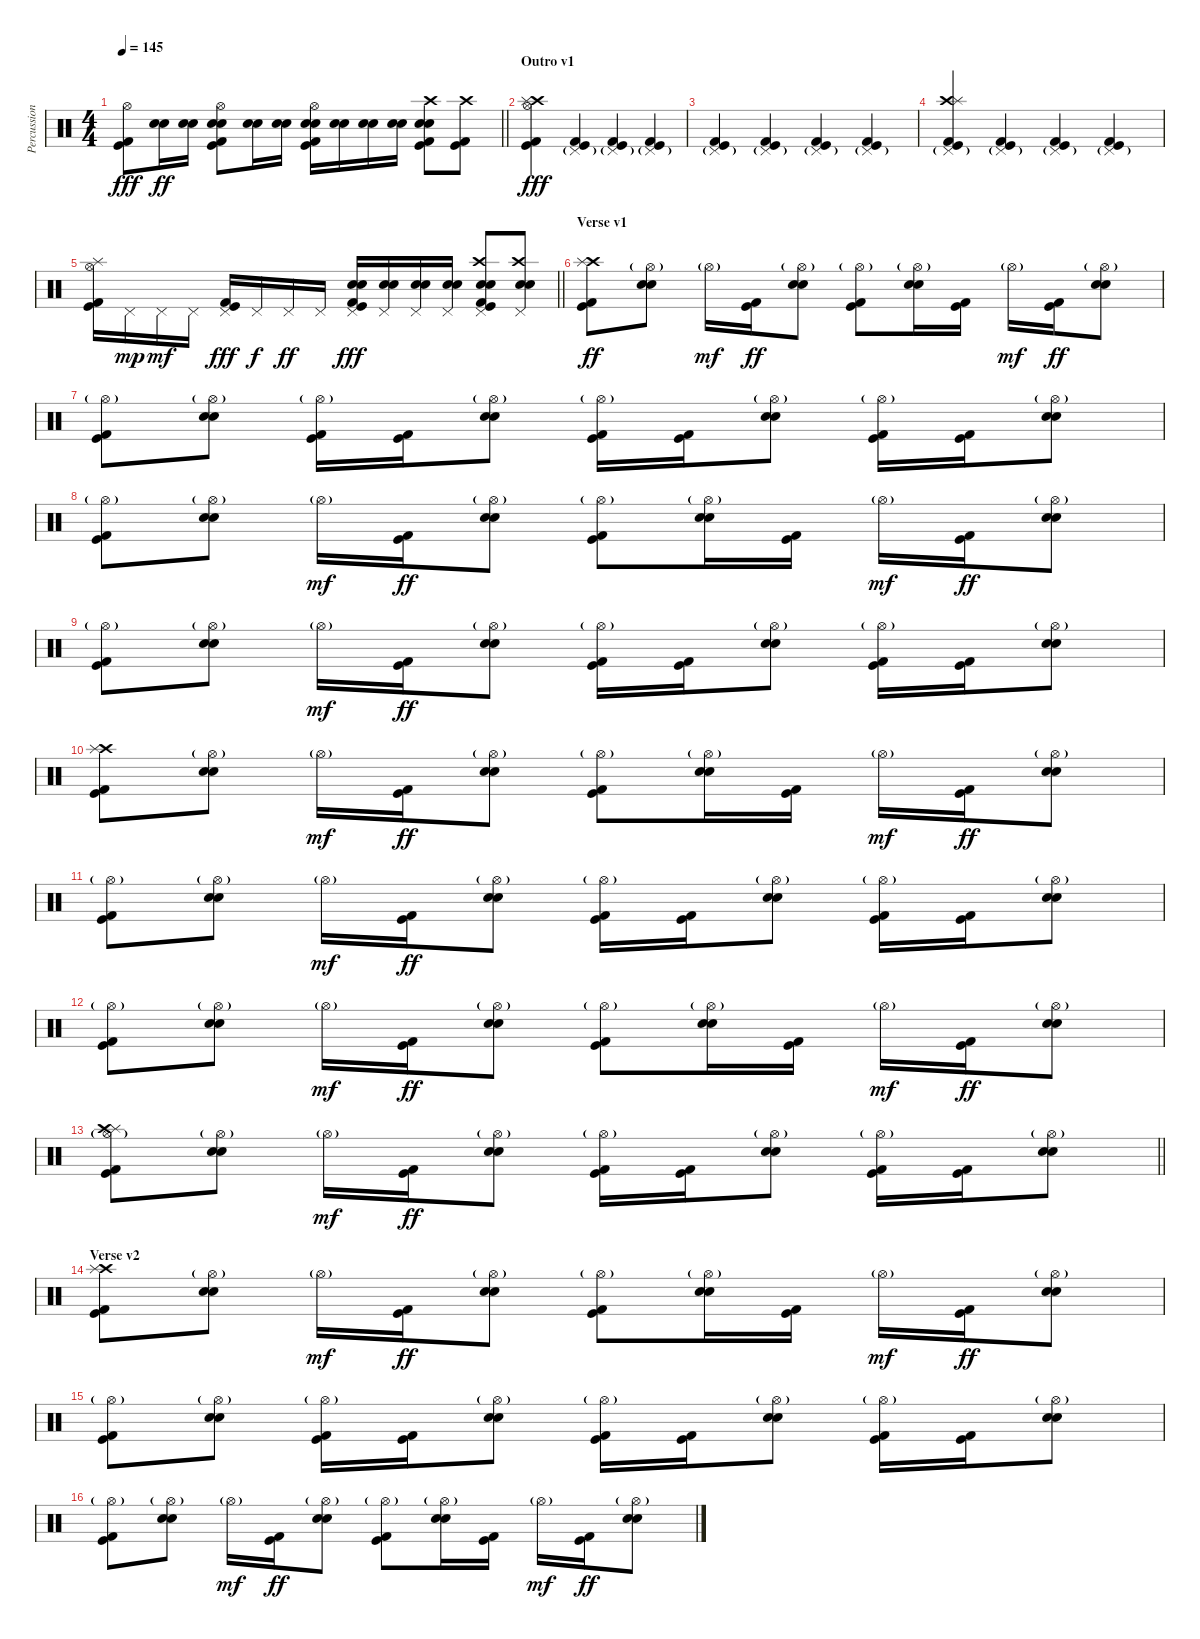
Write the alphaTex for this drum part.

\track ("Percussion" "Percussion") {instrument percussion}
\staff {score}
\articulation defaults
\ts (4 4)
\tempo 145
\clef neutral
\barLineRight lightlight
\ks c
("Hi-Hat (open)" "Kick (hit)" "Kick (hit) 2").8{dy fff} ("Electric Snare (hit)" "Snare (hit) 2").16{dy ff} ("Electric Snare (hit)" "Snare (hit) 2").16 ("Hi-Hat (open)" "Electric Snare (hit)" "Snare (hit) 2" "Kick (hit)" "Kick (hit) 2").8 ("Electric Snare (hit)" "Snare (hit) 2").16 ("Electric Snare (hit)" "Snare (hit) 2").16 ("Hi-Hat (open)" "Electric Snare (hit)" "Snare (hit) 2" "Kick (hit)" "Kick (hit) 2").16 ("Electric Snare (hit)" "Snare (hit) 2").16 ("Electric Snare (hit)" "Snare (hit) 2").16 ("Electric Snare (hit)" "Snare (hit) 2").16 ("Crash high (hit)" "Electric Snare (hit)" "Snare (hit) 2" "Kick (hit)" "Kick (hit) 2").8 ("Crash high (hit)" "Kick (hit)" "Kick (hit) 2").8 |
\section ("" "Outro v1")
("Crash high (hit)" "Splash (hit)" "Hi-Hat (open)" "Kick (hit)" "Kick (hit) 2").4{dy fff} ("Pedal Hi-Hat (hit)"{g} "Kick (hit)" "Kick (hit) 2").4 ("Pedal Hi-Hat (hit)"{g} "Kick (hit)" "Kick (hit) 2").4 ("Pedal Hi-Hat (hit)"{g} "Kick (hit)" "Kick (hit) 2").4 |
("Pedal Hi-Hat (hit)"{g} "Kick (hit)" "Kick (hit) 2").4 ("Pedal Hi-Hat (hit)"{g} "Kick (hit)" "Kick (hit) 2").4 ("Pedal Hi-Hat (hit)"{g} "Kick (hit)" "Kick (hit) 2").4 ("Pedal Hi-Hat (hit)"{g} "Kick (hit)" "Kick (hit) 2").4 |
("Crash high (hit)" "Splash (hit)" "Pedal Hi-Hat (hit)"{g} "Kick (hit)" "Kick (hit) 2").4 ("Pedal Hi-Hat (hit)"{g} "Kick (hit)" "Kick (hit) 2").4 ("Pedal Hi-Hat (hit)"{g} "Kick (hit)" "Kick (hit) 2").4 ("Pedal Hi-Hat (hit)"{g} "Kick (hit)" "Kick (hit) 2").4 |
\barLineRight lightlight
("Splash (hit)" "Hi-Hat (open)" "Kick (hit)" "Kick (hit) 2").16 "Pedal Hi-Hat (hit)".16{dy mp} "Pedal Hi-Hat (hit)".16{dy mf} "Pedal Hi-Hat (hit)".16 ("Pedal Hi-Hat (hit)" "Kick (hit)" "Kick (hit) 2").16{dy fff} "Pedal Hi-Hat (hit)".16{dy f} "Pedal Hi-Hat (hit)".16{dy ff} "Pedal Hi-Hat (hit)".16 ("Electric Snare (hit)" "Snare (hit) 2" "Pedal Hi-Hat (hit)" "Kick (hit)" "Kick (hit) 2").16{dy fff} ("Electric Snare (hit)" "Snare (hit) 2" "Pedal Hi-Hat (hit)").16 ("Electric Snare (hit)" "Snare (hit) 2" "Pedal Hi-Hat (hit)").16 ("Electric Snare (hit)" "Snare (hit) 2" "Pedal Hi-Hat (hit)").16 ("Crash high (hit)" "Electric Snare (hit)" "Snare (hit) 2" "Pedal Hi-Hat (hit)" "Kick (hit)" "Kick (hit) 2").8 ("Crash high (hit)" "Electric Snare (hit)" "Snare (hit) 2" "Pedal Hi-Hat (hit)").8 |
\section ("" "Verse v1")
("Crash high (hit)" "Splash (hit)" "Kick (hit)" "Kick (hit) 2").8{dy ff} ("Hi-Hat (open)"{g} "Electric Snare (hit)" "Snare (hit) 2").8 "Hi-Hat (open)"{g}.16{dy mf} ("Kick (hit)" "Kick (hit) 2").16{dy ff} ("Hi-Hat (open)"{g} "Electric Snare (hit)" "Snare (hit) 2").8 ("Hi-Hat (open)"{g} "Kick (hit)" "Kick (hit) 2").8 ("Hi-Hat (open)"{g} "Electric Snare (hit)" "Snare (hit) 2").16 ("Kick (hit)" "Kick (hit) 2").16 "Hi-Hat (open)"{g}.16{dy mf} ("Kick (hit)" "Kick (hit) 2").16{dy ff} ("Hi-Hat (open)"{g} "Electric Snare (hit)" "Snare (hit) 2").8 |
("Hi-Hat (open)"{g} "Kick (hit)" "Kick (hit) 2").8 ("Hi-Hat (open)"{g} "Electric Snare (hit)" "Snare (hit) 2").8 ("Hi-Hat (open)"{g} "Kick (hit)" "Kick (hit) 2").16 ("Kick (hit)" "Kick (hit) 2").16 ("Hi-Hat (open)"{g} "Electric Snare (hit)" "Snare (hit) 2").8 ("Hi-Hat (open)"{g} "Kick (hit)" "Kick (hit) 2").16 ("Kick (hit)" "Kick (hit) 2").16 ("Hi-Hat (open)"{g} "Electric Snare (hit)" "Snare (hit) 2").8 ("Hi-Hat (open)"{g} "Kick (hit)" "Kick (hit) 2").16 ("Kick (hit)" "Kick (hit) 2").16 ("Hi-Hat (open)"{g} "Electric Snare (hit)" "Snare (hit) 2").8 |
("Hi-Hat (open)"{g} "Kick (hit)" "Kick (hit) 2").8 ("Hi-Hat (open)"{g} "Electric Snare (hit)" "Snare (hit) 2").8 "Hi-Hat (open)"{g}.16{dy mf} ("Kick (hit)" "Kick (hit) 2").16{dy ff} ("Hi-Hat (open)"{g} "Electric Snare (hit)" "Snare (hit) 2").8 ("Hi-Hat (open)"{g} "Kick (hit)" "Kick (hit) 2").8 ("Hi-Hat (open)"{g} "Electric Snare (hit)" "Snare (hit) 2").16 ("Kick (hit)" "Kick (hit) 2").16 "Hi-Hat (open)"{g}.16{dy mf} ("Kick (hit)" "Kick (hit) 2").16{dy ff} ("Hi-Hat (open)"{g} "Electric Snare (hit)" "Snare (hit) 2").8 |
("Hi-Hat (open)"{g} "Kick (hit)" "Kick (hit) 2").8 ("Hi-Hat (open)"{g} "Electric Snare (hit)" "Snare (hit) 2").8 "Hi-Hat (open)"{g}.16{dy mf} ("Kick (hit)" "Kick (hit) 2").16{dy ff} ("Hi-Hat (open)"{g} "Electric Snare (hit)" "Snare (hit) 2").8 ("Hi-Hat (open)"{g} "Kick (hit)" "Kick (hit) 2").16 ("Kick (hit)" "Kick (hit) 2").16 ("Hi-Hat (open)"{g} "Electric Snare (hit)" "Snare (hit) 2").8 ("Hi-Hat (open)"{g} "Kick (hit)" "Kick (hit) 2").16 ("Kick (hit)" "Kick (hit) 2").16 ("Hi-Hat (open)"{g} "Electric Snare (hit)" "Snare (hit) 2").8 |
("Crash high (hit)" "Splash (hit)" "Kick (hit)" "Kick (hit) 2").8 ("Hi-Hat (open)"{g} "Electric Snare (hit)" "Snare (hit) 2").8 "Hi-Hat (open)"{g}.16{dy mf} ("Kick (hit)" "Kick (hit) 2").16{dy ff} ("Hi-Hat (open)"{g} "Electric Snare (hit)" "Snare (hit) 2").8 ("Hi-Hat (open)"{g} "Kick (hit)" "Kick (hit) 2").8 ("Hi-Hat (open)"{g} "Electric Snare (hit)" "Snare (hit) 2").16 ("Kick (hit)" "Kick (hit) 2").16 "Hi-Hat (open)"{g}.16{dy mf} ("Kick (hit)" "Kick (hit) 2").16{dy ff} ("Hi-Hat (open)"{g} "Electric Snare (hit)" "Snare (hit) 2").8 |
("Hi-Hat (open)"{g} "Kick (hit)" "Kick (hit) 2").8 ("Hi-Hat (open)"{g} "Electric Snare (hit)" "Snare (hit) 2").8 "Hi-Hat (open)"{g}.16{dy mf} ("Kick (hit)" "Kick (hit) 2").16{dy ff} ("Hi-Hat (open)"{g} "Electric Snare (hit)" "Snare (hit) 2").8 ("Hi-Hat (open)"{g} "Kick (hit)" "Kick (hit) 2").16 ("Kick (hit)" "Kick (hit) 2").16 ("Hi-Hat (open)"{g} "Electric Snare (hit)" "Snare (hit) 2").8 ("Hi-Hat (open)"{g} "Kick (hit)" "Kick (hit) 2").16 ("Kick (hit)" "Kick (hit) 2").16 ("Hi-Hat (open)"{g} "Electric Snare (hit)" "Snare (hit) 2").8 |
("Hi-Hat (open)"{g} "Kick (hit)" "Kick (hit) 2").8 ("Hi-Hat (open)"{g} "Electric Snare (hit)" "Snare (hit) 2").8 "Hi-Hat (open)"{g}.16{dy mf} ("Kick (hit)" "Kick (hit) 2").16{dy ff} ("Hi-Hat (open)"{g} "Electric Snare (hit)" "Snare (hit) 2").8 ("Hi-Hat (open)"{g} "Kick (hit)" "Kick (hit) 2").8 ("Hi-Hat (open)"{g} "Electric Snare (hit)" "Snare (hit) 2").16 ("Kick (hit)" "Kick (hit) 2").16 "Hi-Hat (open)"{g}.16{dy mf} ("Kick (hit)" "Kick (hit) 2").16{dy ff} ("Hi-Hat (open)"{g} "Electric Snare (hit)" "Snare (hit) 2").8 |
\barLineRight lightlight
("Hi-Hat (open)"{g} "Splash (hit)" "Crash high (hit)" "Kick (hit)" "Kick (hit) 2").8 ("Hi-Hat (open)"{g} "Electric Snare (hit)" "Snare (hit) 2").8 "Hi-Hat (open)"{g}.16{dy mf} ("Kick (hit)" "Kick (hit) 2").16{dy ff} ("Hi-Hat (open)"{g} "Electric Snare (hit)" "Snare (hit) 2").8 ("Hi-Hat (open)"{g} "Kick (hit)" "Kick (hit) 2").16 ("Kick (hit)" "Kick (hit) 2").16 ("Hi-Hat (open)"{g} "Electric Snare (hit)" "Snare (hit) 2").8 ("Hi-Hat (open)"{g} "Kick (hit)" "Kick (hit) 2").16 ("Kick (hit)" "Kick (hit) 2").16 ("Hi-Hat (open)"{g} "Electric Snare (hit)" "Snare (hit) 2").8 |
\section ("" "Verse v2")
("Crash high (hit)" "Splash (hit)" "Kick (hit)" "Kick (hit) 2").8 ("Hi-Hat (open)"{g} "Electric Snare (hit)" "Snare (hit) 2").8 "Hi-Hat (open)"{g}.16{dy mf} ("Kick (hit)" "Kick (hit) 2").16{dy ff} ("Hi-Hat (open)"{g} "Electric Snare (hit)" "Snare (hit) 2").8 ("Hi-Hat (open)"{g} "Kick (hit)" "Kick (hit) 2").8 ("Hi-Hat (open)"{g} "Electric Snare (hit)" "Snare (hit) 2").16 ("Kick (hit)" "Kick (hit) 2").16 "Hi-Hat (open)"{g}.16{dy mf} ("Kick (hit)" "Kick (hit) 2").16{dy ff} ("Hi-Hat (open)"{g} "Electric Snare (hit)" "Snare (hit) 2").8 |
("Hi-Hat (open)"{g} "Kick (hit)" "Kick (hit) 2").8 ("Hi-Hat (open)"{g} "Electric Snare (hit)" "Snare (hit) 2").8 ("Hi-Hat (open)"{g} "Kick (hit)" "Kick (hit) 2").16 ("Kick (hit)" "Kick (hit) 2").16 ("Hi-Hat (open)"{g} "Electric Snare (hit)" "Snare (hit) 2").8 ("Hi-Hat (open)"{g} "Kick (hit)" "Kick (hit) 2").16 ("Kick (hit)" "Kick (hit) 2").16 ("Hi-Hat (open)"{g} "Electric Snare (hit)" "Snare (hit) 2").8 ("Hi-Hat (open)"{g} "Kick (hit)" "Kick (hit) 2").16 ("Kick (hit)" "Kick (hit) 2").16 ("Hi-Hat (open)"{g} "Electric Snare (hit)" "Snare (hit) 2").8 |
("Hi-Hat (open)"{g} "Kick (hit)" "Kick (hit) 2").8 ("Hi-Hat (open)"{g} "Electric Snare (hit)" "Snare (hit) 2").8 "Hi-Hat (open)"{g}.16{dy mf} ("Kick (hit)" "Kick (hit) 2").16{dy ff} ("Hi-Hat (open)"{g} "Electric Snare (hit)" "Snare (hit) 2").8 ("Hi-Hat (open)"{g} "Kick (hit)" "Kick (hit) 2").8 ("Hi-Hat (open)"{g} "Electric Snare (hit)" "Snare (hit) 2").16 ("Kick (hit)" "Kick (hit) 2").16 "Hi-Hat (open)"{g}.16{dy mf} ("Kick (hit)" "Kick (hit) 2").16{dy ff} ("Hi-Hat (open)"{g} "Electric Snare (hit)" "Snare (hit) 2").8
